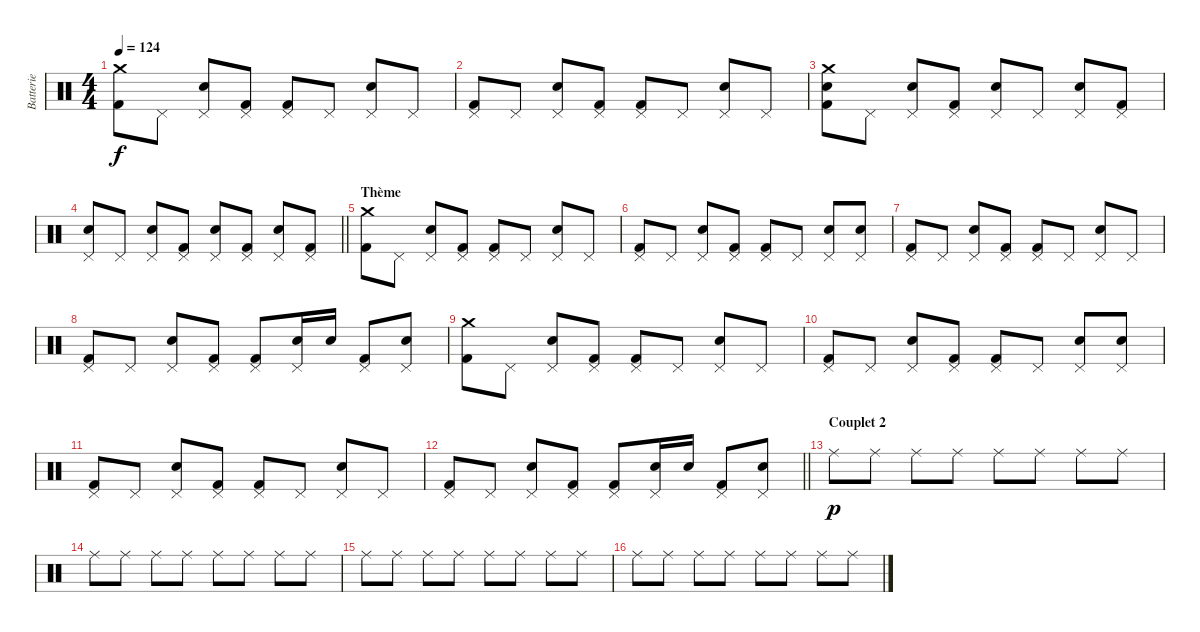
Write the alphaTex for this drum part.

\track ("Batterie" "Batterie") {instrument percussion}
\staff {score}
\articulation defaults
\ts (4 4)
\tempo 124
\clef neutral
\ks c
("Crash medium (hit)" "Kick (hit) 2").8{dy f} "Pedal Hi-Hat (hit)".8 ("Pedal Hi-Hat (hit)" "Electric Snare (hit)").8 ("Pedal Hi-Hat (hit)" "Kick (hit) 2").8 ("Pedal Hi-Hat (hit)" "Kick (hit) 2").8 "Pedal Hi-Hat (hit)".8 ("Pedal Hi-Hat (hit)" "Electric Snare (hit)").8 "Pedal Hi-Hat (hit)".8 |
("Pedal Hi-Hat (hit)" "Kick (hit) 2").8 "Pedal Hi-Hat (hit)".8 ("Pedal Hi-Hat (hit)" "Electric Snare (hit)").8 ("Pedal Hi-Hat (hit)" "Kick (hit) 2").8 ("Pedal Hi-Hat (hit)" "Kick (hit) 2").8 "Pedal Hi-Hat (hit)".8 ("Pedal Hi-Hat (hit)" "Electric Snare (hit)").8 "Pedal Hi-Hat (hit)".8 |
("Crash medium (hit)" "Electric Snare (hit)" "Kick (hit) 2").8 "Pedal Hi-Hat (hit)".8 ("Pedal Hi-Hat (hit)" "Electric Snare (hit)").8 ("Pedal Hi-Hat (hit)" "Kick (hit) 2").8 ("Pedal Hi-Hat (hit)" "Electric Snare (hit)").8 "Pedal Hi-Hat (hit)".8 ("Pedal Hi-Hat (hit)" "Electric Snare (hit)").8 ("Pedal Hi-Hat (hit)" "Kick (hit) 2").8 |
\barLineRight lightlight
("Pedal Hi-Hat (hit)" "Electric Snare (hit)").8 "Pedal Hi-Hat (hit)".8 ("Pedal Hi-Hat (hit)" "Electric Snare (hit)").8 ("Pedal Hi-Hat (hit)" "Kick (hit) 2").8 ("Pedal Hi-Hat (hit)" "Electric Snare (hit)").8 ("Pedal Hi-Hat (hit)" "Kick (hit) 2").8 ("Pedal Hi-Hat (hit)" "Electric Snare (hit)").8 ("Pedal Hi-Hat (hit)" "Kick (hit) 2").8 |
\section ("" "Thème")
("Crash medium (hit)" "Kick (hit) 2").8 "Pedal Hi-Hat (hit)".8 ("Pedal Hi-Hat (hit)" "Electric Snare (hit)").8 ("Pedal Hi-Hat (hit)" "Kick (hit) 2").8 ("Pedal Hi-Hat (hit)" "Kick (hit) 2").8 "Pedal Hi-Hat (hit)".8 ("Pedal Hi-Hat (hit)" "Electric Snare (hit)").8 "Pedal Hi-Hat (hit)".8 |
("Pedal Hi-Hat (hit)" "Kick (hit) 2").8 "Pedal Hi-Hat (hit)".8 ("Pedal Hi-Hat (hit)" "Electric Snare (hit)").8 ("Pedal Hi-Hat (hit)" "Kick (hit) 2").8 ("Pedal Hi-Hat (hit)" "Kick (hit) 2").8 "Pedal Hi-Hat (hit)".8 ("Pedal Hi-Hat (hit)" "Electric Snare (hit)").8 ("Pedal Hi-Hat (hit)" "Electric Snare (hit)").8 |
("Pedal Hi-Hat (hit)" "Kick (hit) 2").8 "Pedal Hi-Hat (hit)".8 ("Pedal Hi-Hat (hit)" "Electric Snare (hit)").8 ("Pedal Hi-Hat (hit)" "Kick (hit) 2").8 ("Pedal Hi-Hat (hit)" "Kick (hit) 2").8 "Pedal Hi-Hat (hit)".8 ("Pedal Hi-Hat (hit)" "Electric Snare (hit)").8 "Pedal Hi-Hat (hit)".8 |
("Pedal Hi-Hat (hit)" "Kick (hit) 2").8 "Pedal Hi-Hat (hit)".8 ("Pedal Hi-Hat (hit)" "Electric Snare (hit)").8 ("Pedal Hi-Hat (hit)" "Kick (hit) 2").8 ("Pedal Hi-Hat (hit)" "Kick (hit) 2").8 ("Pedal Hi-Hat (hit)" "Electric Snare (hit)").16 "Electric Snare (hit)".16 ("Pedal Hi-Hat (hit)" "Kick (hit) 2").8 ("Pedal Hi-Hat (hit)" "Electric Snare (hit)").8 |
("Crash medium (hit)" "Kick (hit) 2").8 "Pedal Hi-Hat (hit)".8 ("Pedal Hi-Hat (hit)" "Electric Snare (hit)").8 ("Pedal Hi-Hat (hit)" "Kick (hit) 2").8 ("Pedal Hi-Hat (hit)" "Kick (hit) 2").8 "Pedal Hi-Hat (hit)".8 ("Pedal Hi-Hat (hit)" "Electric Snare (hit)").8 "Pedal Hi-Hat (hit)".8 |
("Pedal Hi-Hat (hit)" "Kick (hit) 2").8 "Pedal Hi-Hat (hit)".8 ("Pedal Hi-Hat (hit)" "Electric Snare (hit)").8 ("Pedal Hi-Hat (hit)" "Kick (hit) 2").8 ("Pedal Hi-Hat (hit)" "Kick (hit) 2").8 "Pedal Hi-Hat (hit)".8 ("Pedal Hi-Hat (hit)" "Electric Snare (hit)").8 ("Pedal Hi-Hat (hit)" "Electric Snare (hit)").8 |
("Pedal Hi-Hat (hit)" "Kick (hit) 2").8 "Pedal Hi-Hat (hit)".8 ("Pedal Hi-Hat (hit)" "Electric Snare (hit)").8 ("Pedal Hi-Hat (hit)" "Kick (hit) 2").8 ("Pedal Hi-Hat (hit)" "Kick (hit) 2").8 "Pedal Hi-Hat (hit)".8 ("Pedal Hi-Hat (hit)" "Electric Snare (hit)").8 "Pedal Hi-Hat (hit)".8 |
\barLineRight lightlight
("Pedal Hi-Hat (hit)" "Kick (hit) 2").8 "Pedal Hi-Hat (hit)".8 ("Pedal Hi-Hat (hit)" "Electric Snare (hit)").8 ("Pedal Hi-Hat (hit)" "Kick (hit) 2").8 ("Pedal Hi-Hat (hit)" "Kick (hit) 2").8 ("Pedal Hi-Hat (hit)" "Electric Snare (hit)").16 "Electric Snare (hit)".16 ("Pedal Hi-Hat (hit)" "Kick (hit) 2").8 ("Pedal Hi-Hat (hit)" "Electric Snare (hit)").8 |
\section ("" "Couplet 2")
"Ride (middle)".8{dy p} "Ride (middle)".8 "Ride (middle)".8 "Ride (middle)".8 "Ride (middle)".8 "Ride (middle)".8 "Ride (middle)".8 "Ride (middle)".8 |
"Ride (middle)".8 "Ride (middle)".8 "Ride (middle)".8 "Ride (middle)".8 "Ride (middle)".8 "Ride (middle)".8 "Ride (middle)".8 "Ride (middle)".8 |
"Ride (middle)".8 "Ride (middle)".8 "Ride (middle)".8 "Ride (middle)".8 "Ride (middle)".8 "Ride (middle)".8 "Ride (middle)".8 "Ride (middle)".8 |
"Ride (middle)".8 "Ride (middle)".8 "Ride (middle)".8 "Ride (middle)".8 "Ride (middle)".8 "Ride (middle)".8 "Ride (middle)".8 "Ride (middle)".8
